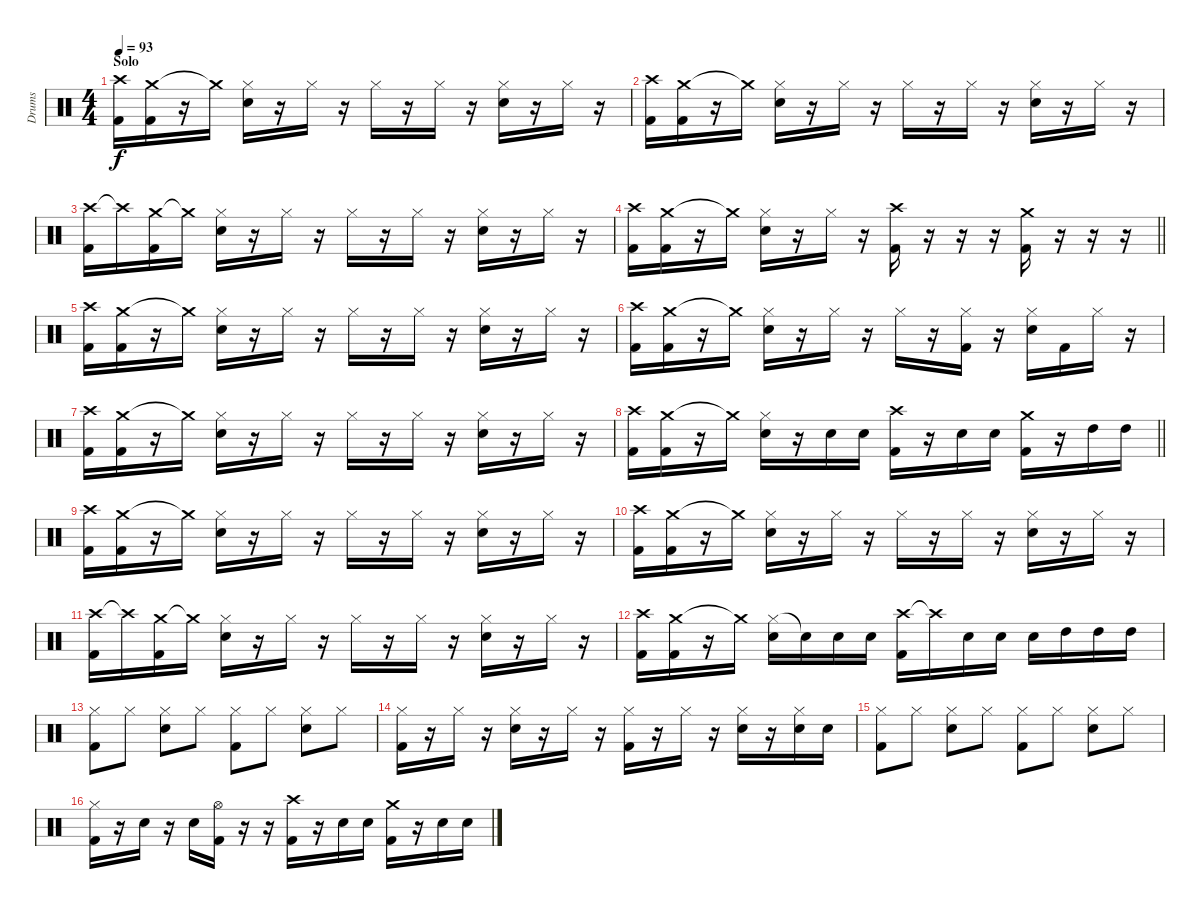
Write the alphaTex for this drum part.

\track ("Drums" "Drums") {instrument percussion}
\staff {score}
\articulation defaults
\ts (4 4)
\section ("" "Solo")
\tempo 93
\clef neutral
\ks c
("Crash high (hit)" "Kick (hit) 2").16{dy f} ("Crash medium (hit)" "Kick (hit) 2").16 r.16 "Crash medium (hit)"{t}.16 ("Hi-Hat (closed)" "Snare (hit) 2").16 r.16 "Hi-Hat (closed)".16 r.16 "Hi-Hat (closed)".16 r.16 "Hi-Hat (closed)".16 r.16 ("Hi-Hat (closed)" "Snare (hit) 2").16 r.16 "Hi-Hat (closed)".16 r.16 |
("Crash high (hit)" "Kick (hit) 2").16 ("Crash medium (hit)" "Kick (hit) 2").16 r.16 "Crash medium (hit)"{t}.16 ("Hi-Hat (closed)" "Snare (hit) 2").16 r.16 "Hi-Hat (closed)".16 r.16 "Hi-Hat (closed)".16 r.16 "Hi-Hat (closed)".16 r.16 ("Hi-Hat (closed)" "Snare (hit) 2").16 r.16 "Hi-Hat (closed)".16 r.16 |
("Crash high (hit)" "Kick (hit) 2").16 "Crash high (hit)"{t}.16 ("Crash medium (hit)" "Kick (hit) 2").16 "Crash medium (hit)"{t}.16 ("Hi-Hat (closed)" "Snare (hit) 2").16 r.16 "Hi-Hat (closed)".16 r.16 "Hi-Hat (closed)".16 r.16 "Hi-Hat (closed)".16 r.16 ("Hi-Hat (closed)" "Snare (hit) 2").16 r.16 "Hi-Hat (closed)".16 r.16 |
\barLineRight lightlight
("Crash high (hit)" "Kick (hit) 2").16 ("Crash medium (hit)" "Kick (hit) 2").16 r.16 "Crash medium (hit)"{t}.16 ("Hi-Hat (closed)" "Snare (hit) 2").16 r.16 "Hi-Hat (closed)".16 r.16 ("Crash high (hit)" "Kick (hit) 2").16 r.16 r.16 r.16 ("Crash medium (hit)" "Kick (hit) 2").16 r.16 r.16 r.16 |
("Crash high (hit)" "Kick (hit) 2").16 ("Crash medium (hit)" "Kick (hit) 2").16 r.16 "Crash medium (hit)"{t}.16 ("Hi-Hat (closed)" "Snare (hit) 2").16 r.16 "Hi-Hat (closed)".16 r.16 "Hi-Hat (closed)".16 r.16 "Hi-Hat (closed)".16 r.16 ("Hi-Hat (closed)" "Snare (hit) 2").16 r.16 "Hi-Hat (closed)".16 r.16 |
("Crash high (hit)" "Kick (hit) 2").16 ("Crash medium (hit)" "Kick (hit) 2").16 r.16 "Crash medium (hit)"{t}.16 ("Hi-Hat (closed)" "Snare (hit) 2").16 r.16 "Hi-Hat (closed)".16 r.16 "Hi-Hat (closed)".16 r.16 ("Hi-Hat (closed)" "Kick (hit) 2").16 r.16 ("Hi-Hat (closed)" "Snare (hit) 2").16 "Kick (hit) 2".16 "Hi-Hat (closed)".16 r.16 |
("Crash high (hit)" "Kick (hit) 2").16 ("Crash medium (hit)" "Kick (hit) 2").16 r.16 "Crash medium (hit)"{t}.16 ("Hi-Hat (closed)" "Snare (hit) 2").16 r.16 "Hi-Hat (closed)".16 r.16 "Hi-Hat (closed)".16 r.16 "Hi-Hat (closed)".16 r.16 ("Hi-Hat (closed)" "Snare (hit) 2").16 r.16 "Hi-Hat (closed)".16 r.16 |
\barLineRight lightlight
("Crash high (hit)" "Kick (hit) 2").16 ("Crash medium (hit)" "Kick (hit) 2").16 r.16 "Crash medium (hit)"{t}.16 ("Hi-Hat (closed)" "Snare (hit) 2").16 r.16 "Snare (hit) 2".16 "Snare (hit) 2".16 ("Crash high (hit)" "Kick (hit) 2").16 r.16 "Snare (hit) 2".16 "Snare (hit) 2".16 ("Crash medium (hit)" "Kick (hit) 2").16 r.16 "High Tom (hit)".16 "High Tom (hit)".16 |
("Crash high (hit)" "Kick (hit) 2").16 ("Crash medium (hit)" "Kick (hit) 2").16 r.16 "Crash medium (hit)"{t}.16 ("Hi-Hat (closed)" "Snare (hit) 2").16 r.16 "Hi-Hat (closed)".16 r.16 "Hi-Hat (closed)".16 r.16 "Hi-Hat (closed)".16 r.16 ("Hi-Hat (closed)" "Snare (hit) 2").16 r.16 "Hi-Hat (closed)".16 r.16 |
("Crash high (hit)" "Kick (hit) 2").16 ("Crash medium (hit)" "Kick (hit) 2").16 r.16 "Crash medium (hit)"{t}.16 ("Hi-Hat (closed)" "Snare (hit) 2").16 r.16 "Hi-Hat (closed)".16 r.16 "Hi-Hat (closed)".16 r.16 "Hi-Hat (closed)".16 r.16 ("Hi-Hat (closed)" "Snare (hit) 2").16 r.16 "Hi-Hat (closed)".16 r.16 |
("Crash high (hit)" "Kick (hit) 2").16 "Crash high (hit)"{t}.16 ("Crash medium (hit)" "Kick (hit) 2").16 "Crash medium (hit)"{t}.16 ("Hi-Hat (closed)" "Snare (hit) 2").16 r.16 "Hi-Hat (closed)".16 r.16 "Hi-Hat (closed)".16 r.16 "Hi-Hat (closed)".16 r.16 ("Hi-Hat (closed)" "Snare (hit) 2").16 r.16 "Hi-Hat (closed)".16 r.16 |
("Crash high (hit)" "Kick (hit) 2").16 ("Crash medium (hit)" "Kick (hit) 2").16 r.16 "Crash medium (hit)"{t}.16 ("Hi-Hat (closed)" "Snare (hit) 2").16 "Snare (hit) 2"{t}.16 "Snare (hit) 2".16 "Snare (hit) 2".16 ("Crash high (hit)" "Kick (hit) 2").16 "Crash high (hit)"{t}.16 "Snare (hit) 2".16 "Snare (hit) 2".16 "Snare (hit) 2".16 "High Tom (hit)".16 "High Tom (hit)".16 "High Tom (hit)".16 |
("Hi-Hat (closed)" "Kick (hit) 2").8 "Hi-Hat (closed)".8 ("Hi-Hat (closed)" "Snare (hit) 2").8 "Hi-Hat (closed)".8 ("Hi-Hat (closed)" "Kick (hit) 2").8 "Hi-Hat (closed)".8 ("Hi-Hat (closed)" "Snare (hit) 2").8 "Hi-Hat (closed)".8 |
("Hi-Hat (closed)" "Kick (hit) 2").16 r.16 "Hi-Hat (closed)".16 r.16 ("Hi-Hat (closed)" "Snare (hit) 2").16 r.16 "Hi-Hat (closed)".16 r.16 ("Hi-Hat (closed)" "Kick (hit) 2").16 r.16 "Hi-Hat (closed)".16 r.16 ("Hi-Hat (closed)" "Snare (hit) 2").16 r.16 ("Hi-Hat (closed)" "Snare (hit) 2").16 "Snare (hit) 2".16 |
("Hi-Hat (closed)" "Kick (hit) 2").8 "Hi-Hat (closed)".8 ("Hi-Hat (closed)" "Snare (hit) 2").8 "Hi-Hat (closed)".8 ("Hi-Hat (closed)" "Kick (hit) 2").8 "Hi-Hat (closed)".8 ("Hi-Hat (closed)" "Snare (hit) 2").8 "Hi-Hat (closed)".8 |
("Hi-Hat (closed)" "Kick (hit) 2").16 r.16 "Snare (hit) 2".16 r.16 "Snare (hit) 2".16 ("Hi-Hat (open)" "Kick (hit) 2").16 r.16 r.16 ("Crash high (hit)" "Kick (hit) 2").16 r.16 "Snare (hit) 2".16 "Snare (hit) 2".16 ("Crash medium (hit)" "Kick (hit) 2").16 r.16 "Snare (hit) 2".16 "Snare (hit) 2".16
